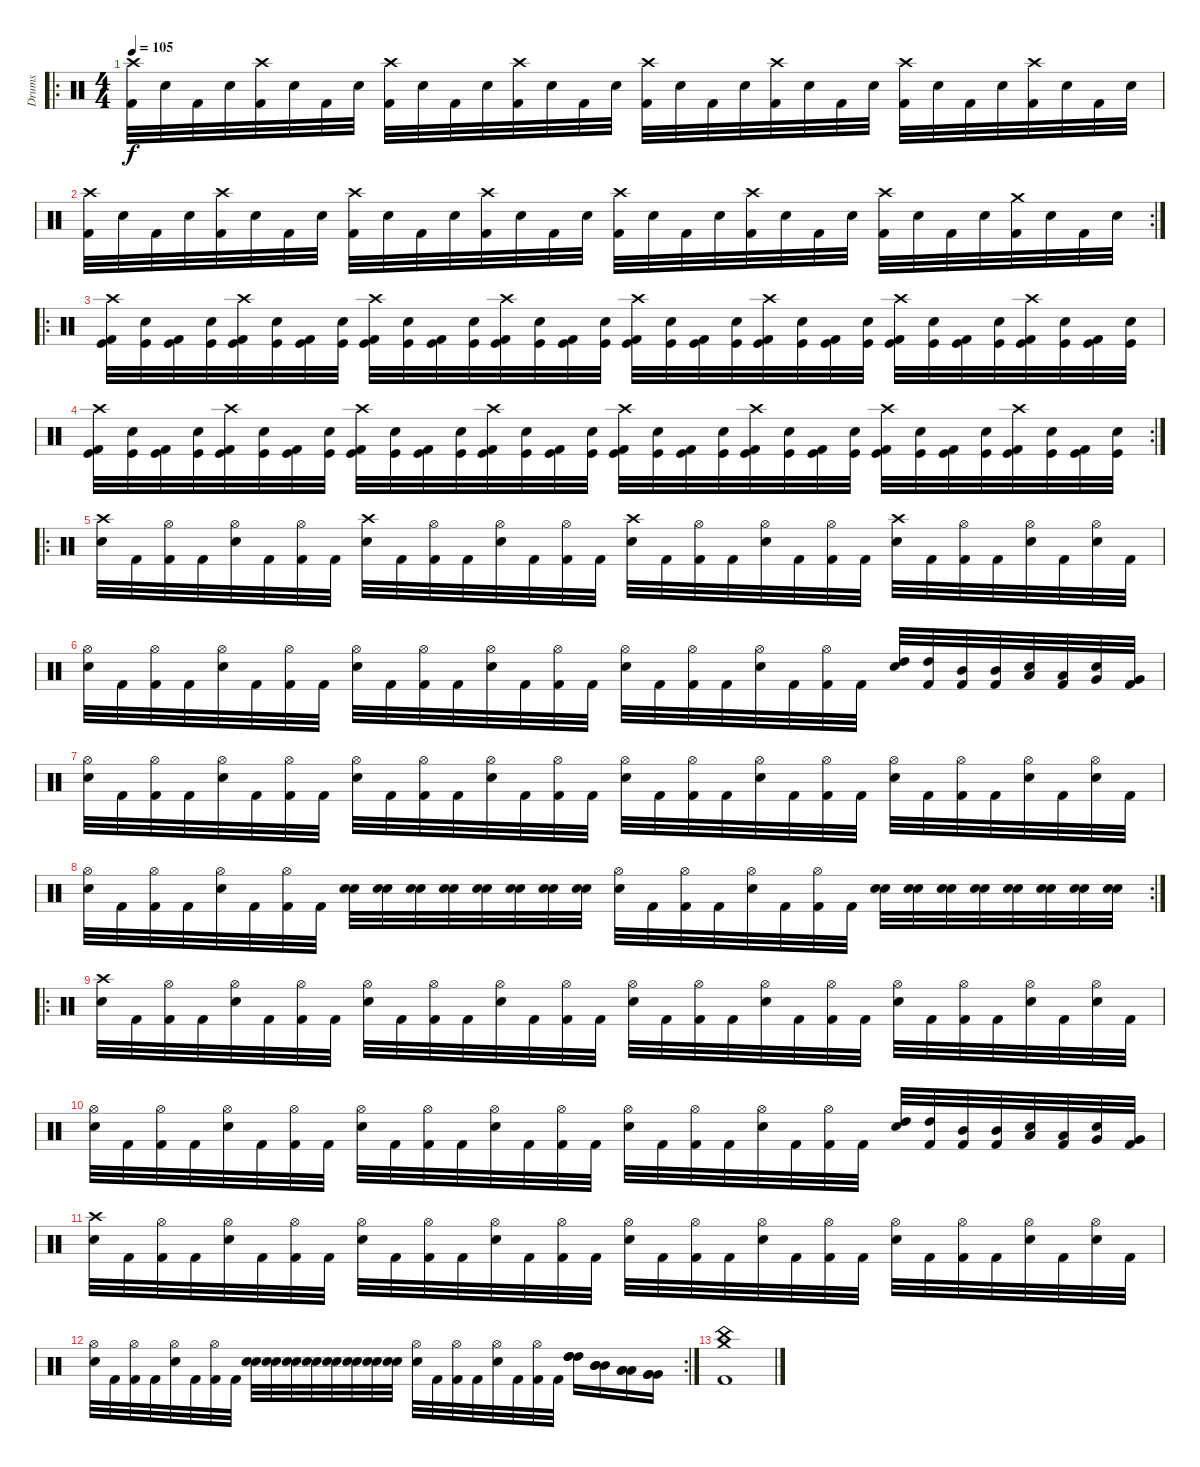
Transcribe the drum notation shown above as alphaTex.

\track ("Drums" "Drums") {instrument percussion}
\staff {score}
\articulation defaults
\ro
\ts (4 4)
\tempo 105
\clef neutral
\ks c
("Crash high (hit)" "Kick (hit) 2").32{dy f} "Electric Snare (hit)".32 "Kick (hit) 2".32 "Electric Snare (hit)".32 ("Crash high (hit)" "Kick (hit) 2").32 "Electric Snare (hit)".32 "Kick (hit) 2".32 "Electric Snare (hit)".32 ("Crash high (hit)" "Kick (hit) 2").32 "Electric Snare (hit)".32 "Kick (hit) 2".32 "Electric Snare (hit)".32 ("Crash high (hit)" "Kick (hit) 2").32 "Electric Snare (hit)".32 "Kick (hit) 2".32 "Electric Snare (hit)".32 ("Crash high (hit)" "Kick (hit) 2").32 "Electric Snare (hit)".32 "Kick (hit) 2".32 "Electric Snare (hit)".32 ("Crash high (hit)" "Kick (hit) 2").32 "Electric Snare (hit)".32 "Kick (hit) 2".32 "Electric Snare (hit)".32 ("Crash high (hit)" "Kick (hit) 2").32 "Electric Snare (hit)".32 "Kick (hit) 2".32 "Electric Snare (hit)".32 ("Crash high (hit)" "Kick (hit) 2").32 "Electric Snare (hit)".32 "Kick (hit) 2".32 "Electric Snare (hit)".32 |
\rc 2
("Crash high (hit)" "Kick (hit) 2").32 "Electric Snare (hit)".32 "Kick (hit) 2".32 "Electric Snare (hit)".32 ("Crash high (hit)" "Kick (hit) 2").32 "Electric Snare (hit)".32 "Kick (hit) 2".32 "Electric Snare (hit)".32 ("Crash high (hit)" "Kick (hit) 2").32 "Electric Snare (hit)".32 "Kick (hit) 2".32 "Electric Snare (hit)".32 ("Crash high (hit)" "Kick (hit) 2").32 "Electric Snare (hit)".32 "Kick (hit) 2".32 "Electric Snare (hit)".32 ("Crash high (hit)" "Kick (hit) 2").32 "Electric Snare (hit)".32 "Kick (hit) 2".32 "Electric Snare (hit)".32 ("Crash high (hit)" "Kick (hit) 2").32 "Electric Snare (hit)".32 "Kick (hit) 2".32 "Electric Snare (hit)".32 ("Crash high (hit)" "Kick (hit) 2").32 "Electric Snare (hit)".32 "Kick (hit) 2".32 "Electric Snare (hit)".32 ("Crash medium (hit)" "Kick (hit) 2").32 "Electric Snare (hit)".32 "Kick (hit) 2".32 "Electric Snare (hit)".32 |
\ro
("Crash high (hit)" "Kick (hit)" "Kick (hit) 2").32 ("Kick (hit)" "Electric Snare (hit)").32 ("Kick (hit)" "Kick (hit) 2").32 ("Kick (hit)" "Electric Snare (hit)").32 ("Crash high (hit)" "Kick (hit)" "Kick (hit) 2").32 ("Kick (hit)" "Electric Snare (hit)").32 ("Kick (hit)" "Kick (hit) 2").32 ("Kick (hit)" "Electric Snare (hit)").32 ("Crash high (hit)" "Kick (hit)" "Kick (hit) 2").32 ("Kick (hit)" "Electric Snare (hit)").32 ("Kick (hit)" "Kick (hit) 2").32 ("Kick (hit)" "Electric Snare (hit)").32 ("Crash high (hit)" "Kick (hit)" "Kick (hit) 2").32 ("Kick (hit)" "Electric Snare (hit)").32 ("Kick (hit)" "Kick (hit) 2").32 ("Kick (hit)" "Electric Snare (hit)").32 ("Crash high (hit)" "Kick (hit)" "Kick (hit) 2").32 ("Kick (hit)" "Electric Snare (hit)").32 ("Kick (hit)" "Kick (hit) 2").32 ("Kick (hit)" "Electric Snare (hit)").32 ("Crash high (hit)" "Kick (hit)" "Kick (hit) 2").32 ("Kick (hit)" "Electric Snare (hit)").32 ("Kick (hit)" "Kick (hit) 2").32 ("Kick (hit)" "Electric Snare (hit)").32 ("Crash high (hit)" "Kick (hit)" "Kick (hit) 2").32 ("Kick (hit)" "Electric Snare (hit)").32 ("Kick (hit)" "Kick (hit) 2").32 ("Kick (hit)" "Electric Snare (hit)").32 ("Crash high (hit)" "Kick (hit)" "Kick (hit) 2").32 ("Kick (hit)" "Electric Snare (hit)").32 ("Kick (hit)" "Kick (hit) 2").32 ("Kick (hit)" "Electric Snare (hit)").32 |
\rc 2
("Crash high (hit)" "Kick (hit)" "Kick (hit) 2").32 ("Kick (hit)" "Electric Snare (hit)").32 ("Kick (hit)" "Kick (hit) 2").32 ("Kick (hit)" "Electric Snare (hit)").32 ("Crash high (hit)" "Kick (hit)" "Kick (hit) 2").32 ("Kick (hit)" "Electric Snare (hit)").32 ("Kick (hit)" "Kick (hit) 2").32 ("Kick (hit)" "Electric Snare (hit)").32 ("Crash high (hit)" "Kick (hit)" "Kick (hit) 2").32 ("Kick (hit)" "Electric Snare (hit)").32 ("Kick (hit)" "Kick (hit) 2").32 ("Kick (hit)" "Electric Snare (hit)").32 ("Crash high (hit)" "Kick (hit)" "Kick (hit) 2").32 ("Kick (hit)" "Electric Snare (hit)").32 ("Kick (hit)" "Kick (hit) 2").32 ("Kick (hit)" "Electric Snare (hit)").32 ("Crash high (hit)" "Kick (hit)" "Kick (hit) 2").32 ("Kick (hit)" "Electric Snare (hit)").32 ("Kick (hit)" "Kick (hit) 2").32 ("Kick (hit)" "Electric Snare (hit)").32 ("Crash high (hit)" "Kick (hit)" "Kick (hit) 2").32 ("Kick (hit)" "Electric Snare (hit)").32 ("Kick (hit)" "Kick (hit) 2").32 ("Kick (hit)" "Electric Snare (hit)").32 ("Crash high (hit)" "Kick (hit)" "Kick (hit) 2").32 ("Kick (hit)" "Electric Snare (hit)").32 ("Kick (hit)" "Kick (hit) 2").32 ("Kick (hit)" "Electric Snare (hit)").32 ("Crash high (hit)" "Kick (hit)" "Kick (hit) 2").32 ("Kick (hit)" "Electric Snare (hit)").32 ("Kick (hit)" "Kick (hit) 2").32 ("Kick (hit)" "Electric Snare (hit)").32 |
\ro
("Crash high (hit)" "Electric Snare (hit)").32 "Kick (hit) 2".32 ("Hi-Hat (open)" "Kick (hit) 2").32 "Kick (hit) 2".32 ("Hi-Hat (open)" "Electric Snare (hit)").32 "Kick (hit) 2".32 ("Hi-Hat (open)" "Kick (hit) 2").32 "Kick (hit) 2".32 ("Crash high (hit)" "Electric Snare (hit)").32 "Kick (hit) 2".32 ("Hi-Hat (open)" "Kick (hit) 2").32 "Kick (hit) 2".32 ("Hi-Hat (open)" "Electric Snare (hit)").32 "Kick (hit) 2".32 ("Hi-Hat (open)" "Kick (hit) 2").32 "Kick (hit) 2".32 ("Crash high (hit)" "Electric Snare (hit)").32 "Kick (hit) 2".32 ("Hi-Hat (open)" "Kick (hit) 2").32 "Kick (hit) 2".32 ("Hi-Hat (open)" "Electric Snare (hit)").32 "Kick (hit) 2".32 ("Hi-Hat (open)" "Kick (hit) 2").32 "Kick (hit) 2".32 ("Crash high (hit)" "Electric Snare (hit)").32 "Kick (hit) 2".32 ("Hi-Hat (open)" "Kick (hit) 2").32 "Kick (hit) 2".32 ("Hi-Hat (open)" "Electric Snare (hit)").32 "Kick (hit) 2".32 ("Hi-Hat (open)" "Electric Snare (hit)").32 "Kick (hit) 2".32 |
("Hi-Hat (open)" "Electric Snare (hit)").32 "Kick (hit) 2".32 ("Hi-Hat (open)" "Kick (hit) 2").32 "Kick (hit) 2".32 ("Hi-Hat (open)" "Electric Snare (hit)").32 "Kick (hit) 2".32 ("Hi-Hat (open)" "Kick (hit) 2").32 "Kick (hit) 2".32 ("Hi-Hat (open)" "Electric Snare (hit)").32 "Kick (hit) 2".32 ("Hi-Hat (open)" "Kick (hit) 2").32 "Kick (hit) 2".32 ("Hi-Hat (open)" "Electric Snare (hit)").32 "Kick (hit) 2".32 ("Hi-Hat (open)" "Kick (hit) 2").32 "Kick (hit) 2".32 ("Hi-Hat (open)" "Electric Snare (hit)").32 "Kick (hit) 2".32 ("Hi-Hat (open)" "Kick (hit) 2").32 "Kick (hit) 2".32 ("Hi-Hat (open)" "Electric Snare (hit)").32 "Kick (hit) 2".32 ("Hi-Hat (open)" "Kick (hit) 2").32 "Kick (hit) 2".32 ("High Tom (hit)" "Electric Snare (hit)").32 ("High Tom (hit)" "Kick (hit) 2").32 ("Mid Tom (hit)" "Kick (hit) 2").32 ("Mid Tom (hit)" "Kick (hit) 2").32 ("Low Tom (hit)" "Electric Snare (hit)").32 ("Low Tom (hit)" "Kick (hit) 2").32 ("Very Low Tom (hit)" "Electric Snare (hit)").32 ("Very Low Tom (hit)" "Kick (hit) 2").32 |
("Hi-Hat (open)" "Electric Snare (hit)").32 "Kick (hit) 2".32 ("Hi-Hat (open)" "Kick (hit) 2").32 "Kick (hit) 2".32 ("Hi-Hat (open)" "Electric Snare (hit)").32 "Kick (hit) 2".32 ("Hi-Hat (open)" "Kick (hit) 2").32 "Kick (hit) 2".32 ("Hi-Hat (open)" "Electric Snare (hit)").32 "Kick (hit) 2".32 ("Hi-Hat (open)" "Kick (hit) 2").32 "Kick (hit) 2".32 ("Hi-Hat (open)" "Electric Snare (hit)").32 "Kick (hit) 2".32 ("Hi-Hat (open)" "Kick (hit) 2").32 "Kick (hit) 2".32 ("Hi-Hat (open)" "Electric Snare (hit)").32 "Kick (hit) 2".32 ("Hi-Hat (open)" "Kick (hit) 2").32 "Kick (hit) 2".32 ("Hi-Hat (open)" "Electric Snare (hit)").32 "Kick (hit) 2".32 ("Hi-Hat (open)" "Kick (hit) 2").32 "Kick (hit) 2".32 ("Hi-Hat (open)" "Electric Snare (hit)").32 "Kick (hit) 2".32 ("Hi-Hat (open)" "Kick (hit) 2").32 "Kick (hit) 2".32 ("Hi-Hat (open)" "Electric Snare (hit)").32 "Kick (hit) 2".32 ("Hi-Hat (open)" "Electric Snare (hit)").32 "Kick (hit) 2".32 |
\rc 2
("Hi-Hat (open)" "Electric Snare (hit)").32 "Kick (hit) 2".32 ("Hi-Hat (open)" "Kick (hit) 2").32 "Kick (hit) 2".32 ("Hi-Hat (open)" "Electric Snare (hit)").32 "Kick (hit) 2".32 ("Hi-Hat (open)" "Kick (hit) 2").32 "Kick (hit) 2".32 ("Electric Snare (hit)" "Electric Snare (hit)").32 ("Electric Snare (hit)" "Electric Snare (hit)").32 ("Electric Snare (hit)" "Electric Snare (hit)").32 ("Electric Snare (hit)" "Electric Snare (hit)").32 ("Electric Snare (hit)" "Electric Snare (hit)").32 ("Electric Snare (hit)" "Electric Snare (hit)").32 ("Electric Snare (hit)" "Electric Snare (hit)").32 ("Electric Snare (hit)" "Electric Snare (hit)").32 ("Hi-Hat (open)" "Electric Snare (hit)").32 "Kick (hit) 2".32 ("Hi-Hat (open)" "Kick (hit) 2").32 "Kick (hit) 2".32 ("Hi-Hat (open)" "Electric Snare (hit)").32 "Kick (hit) 2".32 ("Hi-Hat (open)" "Kick (hit) 2").32 "Kick (hit) 2".32 ("Electric Snare (hit)" "Electric Snare (hit)").32 ("Electric Snare (hit)" "Electric Snare (hit)").32 ("Electric Snare (hit)" "Electric Snare (hit)").32 ("Electric Snare (hit)" "Electric Snare (hit)").32 ("Electric Snare (hit)" "Electric Snare (hit)").32 ("Electric Snare (hit)" "Electric Snare (hit)").32 ("Electric Snare (hit)" "Electric Snare (hit)").32 ("Electric Snare (hit)" "Electric Snare (hit)").32 |
\ro
("Crash high (hit)" "Electric Snare (hit)").32 "Kick (hit) 2".32 ("Hi-Hat (open)" "Kick (hit) 2").32 "Kick (hit) 2".32 ("Hi-Hat (open)" "Electric Snare (hit)").32 "Kick (hit) 2".32 ("Hi-Hat (open)" "Kick (hit) 2").32 "Kick (hit) 2".32 ("Hi-Hat (open)" "Electric Snare (hit)").32 "Kick (hit) 2".32 ("Hi-Hat (open)" "Kick (hit) 2").32 "Kick (hit) 2".32 ("Hi-Hat (open)" "Electric Snare (hit)").32 "Kick (hit) 2".32 ("Hi-Hat (open)" "Kick (hit) 2").32 "Kick (hit) 2".32 ("Hi-Hat (open)" "Electric Snare (hit)").32 "Kick (hit) 2".32 ("Hi-Hat (open)" "Kick (hit) 2").32 "Kick (hit) 2".32 ("Hi-Hat (open)" "Electric Snare (hit)").32 "Kick (hit) 2".32 ("Hi-Hat (open)" "Kick (hit) 2").32 "Kick (hit) 2".32 ("Hi-Hat (open)" "Electric Snare (hit)").32 "Kick (hit) 2".32 ("Hi-Hat (open)" "Kick (hit) 2").32 "Kick (hit) 2".32 ("Hi-Hat (open)" "Electric Snare (hit)").32 "Kick (hit) 2".32 ("Hi-Hat (open)" "Electric Snare (hit)").32 "Kick (hit) 2".32 |
("Hi-Hat (open)" "Electric Snare (hit)").32 "Kick (hit) 2".32 ("Hi-Hat (open)" "Kick (hit) 2").32 "Kick (hit) 2".32 ("Hi-Hat (open)" "Electric Snare (hit)").32 "Kick (hit) 2".32 ("Hi-Hat (open)" "Kick (hit) 2").32 "Kick (hit) 2".32 ("Hi-Hat (open)" "Electric Snare (hit)").32 "Kick (hit) 2".32 ("Hi-Hat (open)" "Kick (hit) 2").32 "Kick (hit) 2".32 ("Hi-Hat (open)" "Electric Snare (hit)").32 "Kick (hit) 2".32 ("Hi-Hat (open)" "Kick (hit) 2").32 "Kick (hit) 2".32 ("Hi-Hat (open)" "Electric Snare (hit)").32 "Kick (hit) 2".32 ("Hi-Hat (open)" "Kick (hit) 2").32 "Kick (hit) 2".32 ("Hi-Hat (open)" "Electric Snare (hit)").32 "Kick (hit) 2".32 ("Hi-Hat (open)" "Kick (hit) 2").32 "Kick (hit) 2".32 ("High Tom (hit)" "Electric Snare (hit)").32 ("High Tom (hit)" "Kick (hit) 2").32 ("Mid Tom (hit)" "Kick (hit) 2").32 ("Mid Tom (hit)" "Kick (hit) 2").32 ("Low Tom (hit)" "Electric Snare (hit)").32 ("Low Tom (hit)" "Kick (hit) 2").32 ("Very Low Tom (hit)" "Electric Snare (hit)").32 ("Very Low Tom (hit)" "Kick (hit) 2").32 |
("Crash high (hit)" "Electric Snare (hit)").32 "Kick (hit) 2".32 ("Hi-Hat (open)" "Kick (hit) 2").32 "Kick (hit) 2".32 ("Hi-Hat (open)" "Electric Snare (hit)").32 "Kick (hit) 2".32 ("Hi-Hat (open)" "Kick (hit) 2").32 "Kick (hit) 2".32 ("Hi-Hat (open)" "Electric Snare (hit)").32 "Kick (hit) 2".32 ("Hi-Hat (open)" "Kick (hit) 2").32 "Kick (hit) 2".32 ("Hi-Hat (open)" "Electric Snare (hit)").32 "Kick (hit) 2".32 ("Hi-Hat (open)" "Kick (hit) 2").32 "Kick (hit) 2".32 ("Hi-Hat (open)" "Electric Snare (hit)").32 "Kick (hit) 2".32 ("Hi-Hat (open)" "Kick (hit) 2").32 "Kick (hit) 2".32 ("Hi-Hat (open)" "Electric Snare (hit)").32 "Kick (hit) 2".32 ("Hi-Hat (open)" "Kick (hit) 2").32 "Kick (hit) 2".32 ("Hi-Hat (open)" "Electric Snare (hit)").32 "Kick (hit) 2".32 ("Hi-Hat (open)" "Kick (hit) 2").32 "Kick (hit) 2".32 ("Hi-Hat (open)" "Electric Snare (hit)").32 "Kick (hit) 2".32 ("Hi-Hat (open)" "Electric Snare (hit)").32 "Kick (hit) 2".32 |
\rc 2
("Hi-Hat (open)" "Electric Snare (hit)").32 "Kick (hit) 2".32 ("Hi-Hat (open)" "Kick (hit) 2").32 "Kick (hit) 2".32 ("Hi-Hat (open)" "Electric Snare (hit)").32 "Kick (hit) 2".32 ("Hi-Hat (open)" "Kick (hit) 2").32 "Kick (hit) 2".32 ("Electric Snare (hit)" "Electric Snare (hit)").32 ("Electric Snare (hit)" "Electric Snare (hit)").32 ("Electric Snare (hit)" "Electric Snare (hit)").32 ("Electric Snare (hit)" "Electric Snare (hit)").32 ("Electric Snare (hit)" "Electric Snare (hit)").32 ("Electric Snare (hit)" "Electric Snare (hit)").32 ("Electric Snare (hit)" "Electric Snare (hit)").32 ("Electric Snare (hit)" "Electric Snare (hit)").32 ("Hi-Hat (open)" "Electric Snare (hit)").32 "Kick (hit) 2".32 ("Hi-Hat (open)" "Kick (hit) 2").32 "Kick (hit) 2".32 ("Hi-Hat (open)" "Electric Snare (hit)").32 "Kick (hit) 2".32 ("Hi-Hat (open)" "Kick (hit) 2").32 "Kick (hit) 2".32 ("High Tom (hit)" "High Tom (hit)" "High Tom (hit)").16 ("Mid Tom (hit)" "Mid Tom (hit)" "Mid Tom (hit)").16 ("Low Tom (hit)" "Low Tom (hit)" "Low Tom (hit)").16 ("Very Low Tom (hit)" "Very Low Tom (hit)" "Very Low Tom (hit)").16 |
("China (hit)" "Crash medium (hit)" "Kick (hit) 2").1
